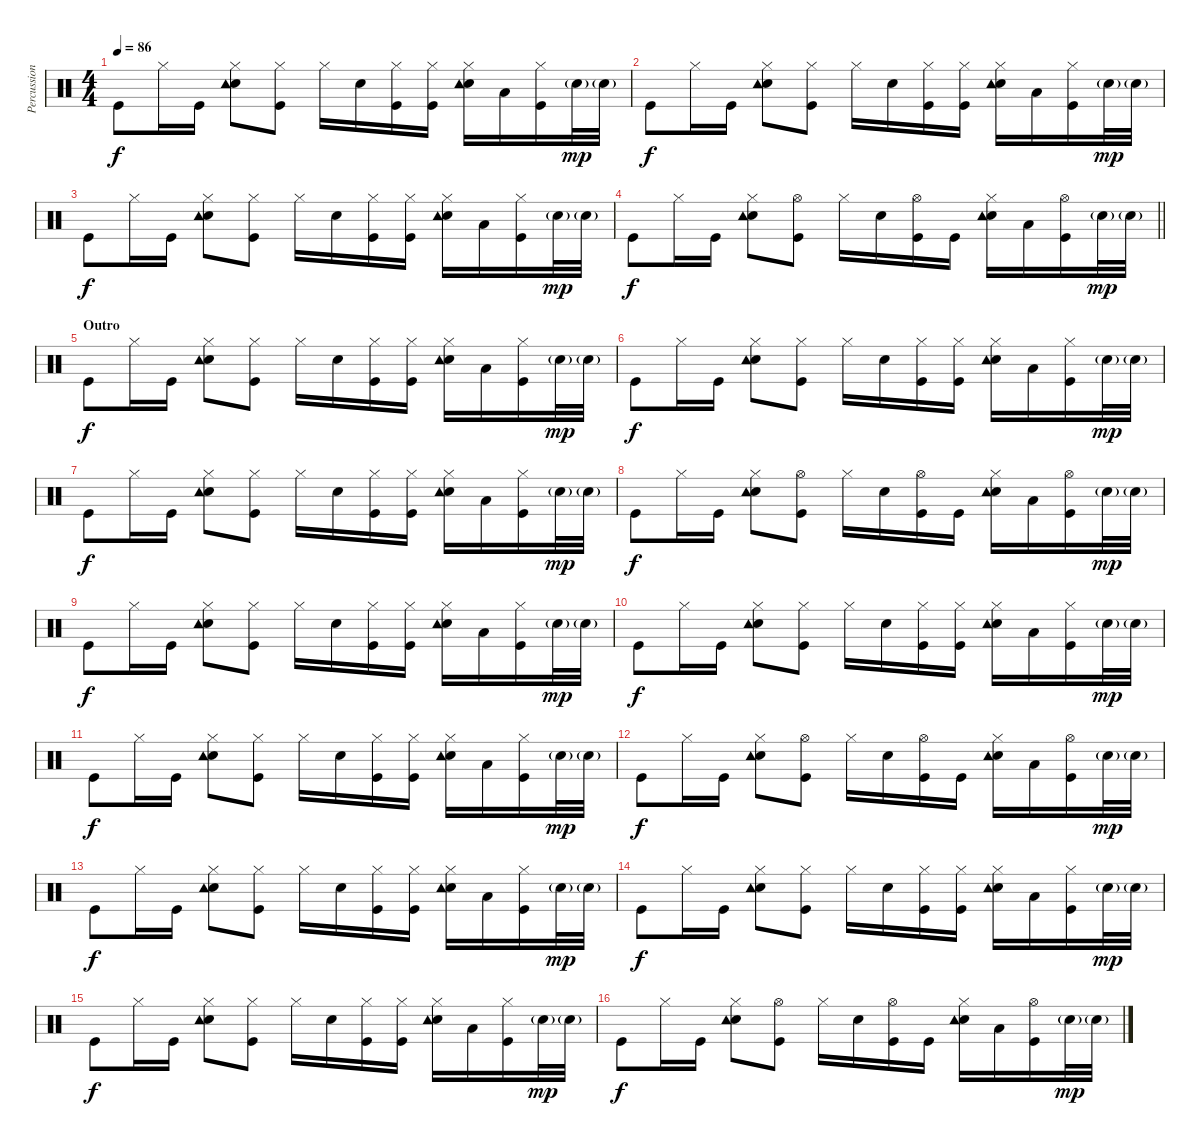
\track ("Percussion" "Percussion") {instrument percussion}
\staff {score}
\articulation defaults
\ts (4 4)
\tempo 86
\clef neutral
\ks c "Kick (hit)".8{dy f} "Hi-Hat (closed)".16 "Kick (hit)".16
("Snare (hit) 2" "Hi-Hat (closed)" "Tambourine (hit)").8 ("Hi-Hat (closed)" "Kick (hit)").8 "Hi-Hat (closed)".16 "Snare (hit) 2".16 ("Kick (hit)" "Hi-Hat (closed)").16 ("Kick (hit)" "Hi-Hat (closed)").16 ("Snare (hit) 2" "Hi-Hat (closed)" "Tambourine (hit)").16 "Low Tom (hit)".16 ("Hi-Hat (closed)" "Kick (hit)").16 "Snare (hit) 2"{g}.32{dy mp} "Snare (hit) 2"{g}.32 |
"Kick (hit)".8{dy f} "Hi-Hat (closed)".16 "Kick (hit)".16 ("Snare (hit) 2" "Hi-Hat (closed)" "Tambourine (hit)").8 ("Hi-Hat (closed)" "Kick (hit)").8 "Hi-Hat (closed)".16 "Snare (hit) 2".16 ("Kick (hit)" "Hi-Hat (closed)").16 ("Kick (hit)" "Hi-Hat (closed)").16 ("Snare (hit) 2" "Hi-Hat (closed)" "Tambourine (hit)").16 "Low Tom (hit)".16 ("Hi-Hat (closed)" "Kick (hit)").16 "Snare (hit) 2"{g}.32{dy mp} "Snare (hit) 2"{g}.32 |
"Kick (hit)".8{dy f} "Hi-Hat (closed)".16 "Kick (hit)".16 ("Snare (hit) 2" "Hi-Hat (closed)" "Tambourine (hit)").8 ("Hi-Hat (closed)" "Kick (hit)").8 "Hi-Hat (closed)".16 "Snare (hit) 2".16 ("Kick (hit)" "Hi-Hat (closed)").16 ("Kick (hit)" "Hi-Hat (closed)").16 ("Snare (hit) 2" "Hi-Hat (closed)" "Tambourine (hit)").16 "Low Tom (hit)".16 ("Hi-Hat (closed)" "Kick (hit)").16 "Snare (hit) 2"{g}.32{dy mp} "Snare (hit) 2"{g}.32 |
\barLineRight lightlight "Kick (hit)".8{dy f} "Hi-Hat (closed)".16 "Kick (hit)".16
("Snare (hit) 2" "Hi-Hat (closed)" "Tambourine (hit)").8 ("Hi-Hat (open)" "Kick (hit)").8 "Hi-Hat (closed)".16 "Snare (hit) 2".16 ("Kick (hit)" "Hi-Hat (open)").16 "Kick (hit)".16 ("Snare (hit) 2" "Tambourine (hit)" "Hi-Hat (closed)").16 "Low Tom (hit)".16 ("Hi-Hat (open)" "Kick (hit)").16 "Snare (hit) 2"{g}.32{dy mp} "Snare (hit) 2"{g}.32 |
\section ("" "Outro")
"Kick (hit)".8{dy f} "Hi-Hat (closed)".16 "Kick (hit)".16 ("Snare (hit) 2" "Hi-Hat (closed)" "Tambourine (hit)").8 ("Hi-Hat (closed)" "Kick (hit)").8 "Hi-Hat (closed)".16 "Snare (hit) 2".16 ("Kick (hit)" "Hi-Hat (closed)").16 ("Kick (hit)" "Hi-Hat (closed)").16 ("Snare (hit) 2" "Hi-Hat (closed)" "Tambourine (hit)").16 "Low Tom (hit)".16 ("Hi-Hat (closed)" "Kick (hit)").16 "Snare (hit) 2"{g}.32{dy mp} "Snare (hit) 2"{g}.32 |
"Kick (hit)".8{dy f} "Hi-Hat (closed)".16 "Kick (hit)".16 ("Snare (hit) 2" "Hi-Hat (closed)" "Tambourine (hit)").8 ("Hi-Hat (closed)" "Kick (hit)").8 "Hi-Hat (closed)".16 "Snare (hit) 2".16 ("Kick (hit)" "Hi-Hat (closed)").16 ("Kick (hit)" "Hi-Hat (closed)").16 ("Snare (hit) 2" "Hi-Hat (closed)" "Tambourine (hit)").16 "Low Tom (hit)".16 ("Hi-Hat (closed)" "Kick (hit)").16 "Snare (hit) 2"{g}.32{dy mp} "Snare (hit) 2"{g}.32 |
"Kick (hit)".8{dy f} "Hi-Hat (closed)".16 "Kick (hit)".16 ("Snare (hit) 2" "Hi-Hat (closed)" "Tambourine (hit)").8 ("Hi-Hat (closed)" "Kick (hit)").8 "Hi-Hat (closed)".16 "Snare (hit) 2".16 ("Kick (hit)" "Hi-Hat (closed)").16 ("Kick (hit)" "Hi-Hat (closed)").16 ("Snare (hit) 2" "Hi-Hat (closed)" "Tambourine (hit)").16 "Low Tom (hit)".16 ("Hi-Hat (closed)" "Kick (hit)").16 "Snare (hit) 2"{g}.32{dy mp} "Snare (hit) 2"{g}.32 |
"Kick (hit)".8{dy f} "Hi-Hat (closed)".16 "Kick (hit)".16 ("Snare (hit) 2" "Hi-Hat (closed)" "Tambourine (hit)").8 ("Hi-Hat (open)" "Kick (hit)").8 "Hi-Hat (closed)".16 "Snare (hit) 2".16 ("Kick (hit)" "Hi-Hat (open)").16 "Kick (hit)".16 ("Snare (hit) 2" "Tambourine (hit)" "Hi-Hat (closed)").16 "Low Tom (hit)".16 ("Hi-Hat (open)" "Kick (hit)").16 "Snare (hit) 2"{g}.32{dy mp} "Snare (hit) 2"{g}.32 |
"Kick (hit)".8{dy f} "Hi-Hat (closed)".16 "Kick (hit)".16 ("Snare (hit) 2" "Hi-Hat (closed)" "Tambourine (hit)").8 ("Hi-Hat (closed)" "Kick (hit)").8 "Hi-Hat (closed)".16 "Snare (hit) 2".16 ("Kick (hit)" "Hi-Hat (closed)").16 ("Kick (hit)" "Hi-Hat (closed)").16 ("Snare (hit) 2" "Hi-Hat (closed)" "Tambourine (hit)").16 "Low Tom (hit)".16 ("Hi-Hat (closed)" "Kick (hit)").16 "Snare (hit) 2"{g}.32{dy mp} "Snare (hit) 2"{g}.32 |
"Kick (hit)".8{dy f} "Hi-Hat (closed)".16 "Kick (hit)".16 ("Snare (hit) 2" "Hi-Hat (closed)" "Tambourine (hit)").8 ("Hi-Hat (closed)" "Kick (hit)").8 "Hi-Hat (closed)".16 "Snare (hit) 2".16 ("Kick (hit)" "Hi-Hat (closed)").16 ("Kick (hit)" "Hi-Hat (closed)").16 ("Snare (hit) 2" "Hi-Hat (closed)" "Tambourine (hit)").16 "Low Tom (hit)".16 ("Hi-Hat (closed)" "Kick (hit)").16 "Snare (hit) 2"{g}.32{dy mp} "Snare (hit) 2"{g}.32 |
"Kick (hit)".8{dy f} "Hi-Hat (closed)".16 "Kick (hit)".16 ("Snare (hit) 2" "Hi-Hat (closed)" "Tambourine (hit)").8 ("Hi-Hat (closed)" "Kick (hit)").8 "Hi-Hat (closed)".16 "Snare (hit) 2".16 ("Kick (hit)" "Hi-Hat (closed)").16 ("Kick (hit)" "Hi-Hat (closed)").16 ("Snare (hit) 2" "Hi-Hat (closed)" "Tambourine (hit)").16 "Low Tom (hit)".16 ("Hi-Hat (closed)" "Kick (hit)").16 "Snare (hit) 2"{g}.32{dy mp} "Snare (hit) 2"{g}.32 |
"Kick (hit)".8{dy f} "Hi-Hat (closed)".16 "Kick (hit)".16 ("Snare (hit) 2" "Hi-Hat (closed)" "Tambourine (hit)").8 ("Hi-Hat (open)" "Kick (hit)").8 "Hi-Hat (closed)".16 "Snare (hit) 2".16 ("Kick (hit)" "Hi-Hat (open)").16 "Kick (hit)".16 ("Snare (hit) 2" "Tambourine (hit)" "Hi-Hat (closed)").16 "Low Tom (hit)".16 ("Hi-Hat (open)" "Kick (hit)").16 "Snare (hit) 2"{g}.32{dy mp} "Snare (hit) 2"{g}.32 |
"Kick (hit)".8{dy f} "Hi-Hat (closed)".16 "Kick (hit)".16 ("Snare (hit) 2" "Hi-Hat (closed)" "Tambourine (hit)").8 ("Hi-Hat (closed)" "Kick (hit)").8 "Hi-Hat (closed)".16 "Snare (hit) 2".16 ("Kick (hit)" "Hi-Hat (closed)").16 ("Kick (hit)" "Hi-Hat (closed)").16 ("Snare (hit) 2" "Hi-Hat (closed)" "Tambourine (hit)").16 "Low Tom (hit)".16 ("Hi-Hat (closed)" "Kick (hit)").16 "Snare (hit) 2"{g}.32{dy mp} "Snare (hit) 2"{g}.32 |
"Kick (hit)".8{dy f} "Hi-Hat (closed)".16 "Kick (hit)".16 ("Snare (hit) 2" "Hi-Hat (closed)" "Tambourine (hit)").8 ("Hi-Hat (closed)" "Kick (hit)").8 "Hi-Hat (closed)".16 "Snare (hit) 2".16 ("Kick (hit)" "Hi-Hat (closed)").16 ("Kick (hit)" "Hi-Hat (closed)").16 ("Snare (hit) 2" "Hi-Hat (closed)" "Tambourine (hit)").16 "Low Tom (hit)".16 ("Hi-Hat (closed)" "Kick (hit)").16 "Snare (hit) 2"{g}.32{dy mp} "Snare (hit) 2"{g}.32 |
"Kick (hit)".8{dy f} "Hi-Hat (closed)".16 "Kick (hit)".16 ("Snare (hit) 2" "Hi-Hat (closed)" "Tambourine (hit)").8 ("Hi-Hat (closed)" "Kick (hit)").8 "Hi-Hat (closed)".16 "Snare (hit) 2".16 ("Kick (hit)" "Hi-Hat (closed)").16 ("Kick (hit)" "Hi-Hat (closed)").16 ("Snare (hit) 2" "Hi-Hat (closed)" "Tambourine (hit)").16 "Low Tom (hit)".16 ("Hi-Hat (closed)" "Kick (hit)").16 "Snare (hit) 2"{g}.32{dy mp} "Snare (hit) 2"{g}.32 |
"Kick (hit)".8{dy f} "Hi-Hat (closed)".16 "Kick (hit)".16 ("Snare (hit) 2" "Hi-Hat (closed)" "Tambourine (hit)").8 ("Hi-Hat (open)" "Kick (hit)").8 "Hi-Hat (closed)".16 "Snare (hit) 2".16 ("Kick (hit)" "Hi-Hat (open)").16 "Kick (hit)".16 ("Snare (hit) 2" "Tambourine (hit)" "Hi-Hat (closed)").16 "Low Tom (hit)".16 ("Hi-Hat (open)" "Kick (hit)").16 "Snare (hit) 2"{g}.32{dy mp} "Snare (hit) 2"{g}.32
